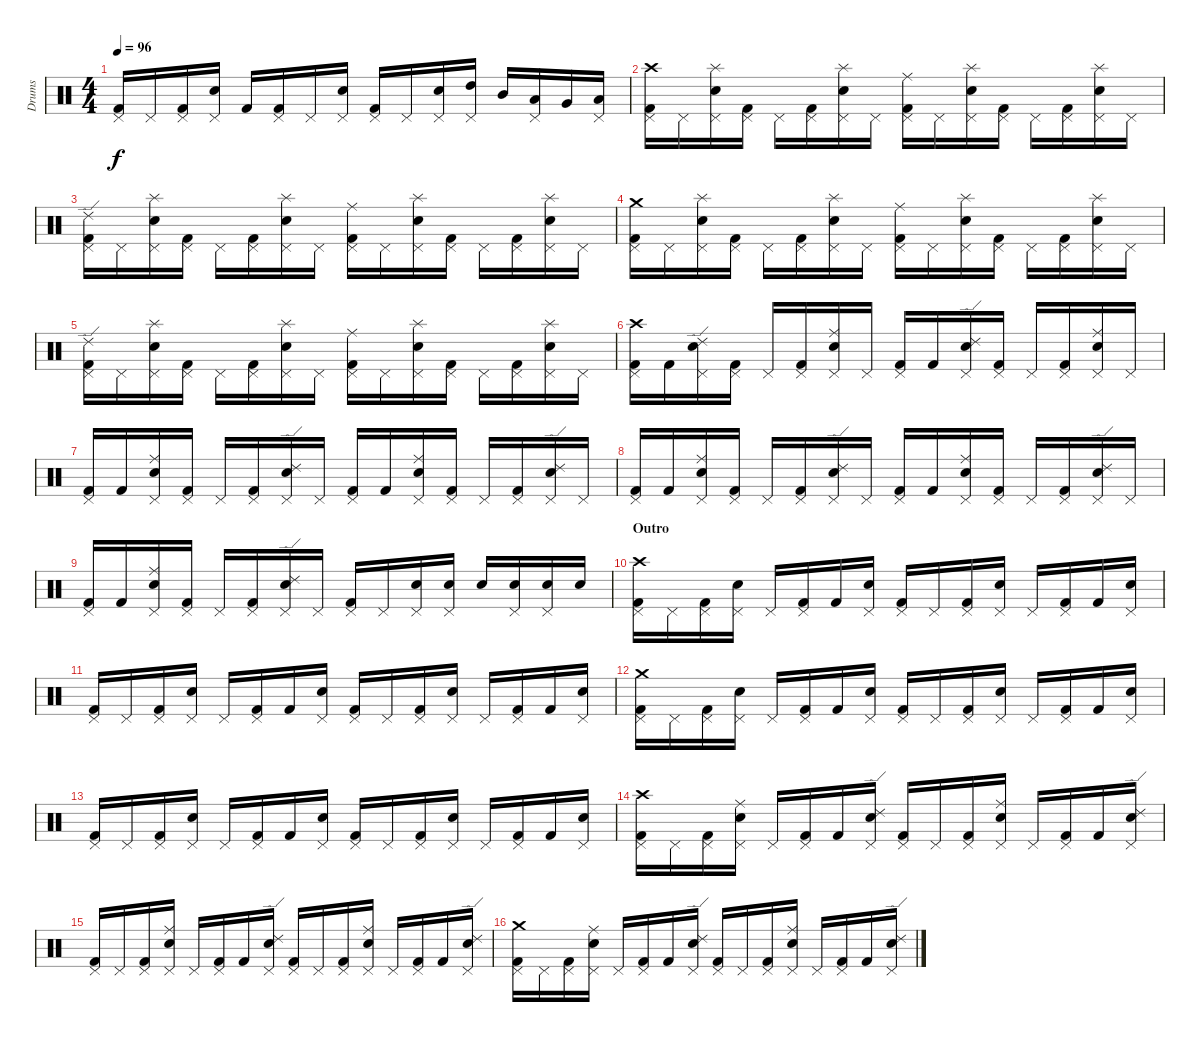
\track ("Drums" "Drums") {instrument percussion}
\staff {score}
\articulation defaults
\ts (4 4)
\tempo 96
\clef neutral
\ks c
("Kick (hit) 2" "Pedal Hi-Hat (hit)").16{dy f} "Pedal Hi-Hat (hit)".16 ("Kick (hit) 2" "Pedal Hi-Hat (hit)").16 ("Snare (hit) 2" "Pedal Hi-Hat (hit)").16 "Kick (hit) 2".16 ("Kick (hit) 2" "Pedal Hi-Hat (hit)").16 "Pedal Hi-Hat (hit)".16 ("Snare (hit) 2" "Pedal Hi-Hat (hit)").16 ("Kick (hit) 2" "Pedal Hi-Hat (hit)").16 "Pedal Hi-Hat (hit)".16 ("Snare (hit) 2" "Pedal Hi-Hat (hit)").16 ("High Tom (hit)" "Pedal Hi-Hat (hit)").16 "Mid Tom (hit)".16 ("Low Tom (hit)" "Pedal Hi-Hat (hit)").16 "Very Low Tom (hit)".16 ("Low Floor Tom (hit)" "Pedal Hi-Hat (hit)").16 |
("Kick (hit) 2" "Pedal Hi-Hat (hit)" "Crash high (hit)").16 "Pedal Hi-Hat (hit)".16 ("Snare (hit) 2" "Pedal Hi-Hat (hit)" "Splash (hit)").16 ("Kick (hit) 2" "Pedal Hi-Hat (hit)").16 "Pedal Hi-Hat (hit)".16 ("Kick (hit) 2" "Pedal Hi-Hat (hit)").16 ("Snare (hit) 2" "Pedal Hi-Hat (hit)" "Splash (hit)").16 "Pedal Hi-Hat (hit)".16 ("Kick (hit) 2" "Pedal Hi-Hat (hit)" "Ride (middle)").16 "Pedal Hi-Hat (hit)".16 ("Snare (hit) 2" "Pedal Hi-Hat (hit)" "Splash (hit)").16 ("Kick (hit) 2" "Pedal Hi-Hat (hit)").16 "Pedal Hi-Hat (hit)".16 ("Kick (hit) 2" "Pedal Hi-Hat (hit)").16 ("Snare (hit) 2" "Pedal Hi-Hat (hit)" "Splash (hit)").16 "Pedal Hi-Hat (hit)".16 |
("Kick (hit) 2" "Pedal Hi-Hat (hit)" "Ride (edge) 2").16 "Pedal Hi-Hat (hit)".16 ("Snare (hit) 2" "Pedal Hi-Hat (hit)" "Splash (hit)").16 ("Kick (hit) 2" "Pedal Hi-Hat (hit)").16 "Pedal Hi-Hat (hit)".16 ("Kick (hit) 2" "Pedal Hi-Hat (hit)").16 ("Snare (hit) 2" "Pedal Hi-Hat (hit)" "Splash (hit)").16 "Pedal Hi-Hat (hit)".16 ("Kick (hit) 2" "Pedal Hi-Hat (hit)" "Ride (middle)").16 "Pedal Hi-Hat (hit)".16 ("Snare (hit) 2" "Pedal Hi-Hat (hit)" "Splash (hit)").16 ("Kick (hit) 2" "Pedal Hi-Hat (hit)").16 "Pedal Hi-Hat (hit)".16 ("Kick (hit) 2" "Pedal Hi-Hat (hit)").16 ("Snare (hit) 2" "Pedal Hi-Hat (hit)" "Splash (hit)").16 "Pedal Hi-Hat (hit)".16 |
("Kick (hit) 2" "Pedal Hi-Hat (hit)" "Crash medium (hit)").16 "Pedal Hi-Hat (hit)".16 ("Snare (hit) 2" "Pedal Hi-Hat (hit)" "Splash (hit)").16 ("Kick (hit) 2" "Pedal Hi-Hat (hit)").16 "Pedal Hi-Hat (hit)".16 ("Kick (hit) 2" "Pedal Hi-Hat (hit)").16 ("Snare (hit) 2" "Pedal Hi-Hat (hit)" "Splash (hit)").16 "Pedal Hi-Hat (hit)".16 ("Kick (hit) 2" "Pedal Hi-Hat (hit)" "Ride (middle)").16 "Pedal Hi-Hat (hit)".16 ("Snare (hit) 2" "Pedal Hi-Hat (hit)" "Splash (hit)").16 ("Kick (hit) 2" "Pedal Hi-Hat (hit)").16 "Pedal Hi-Hat (hit)".16 ("Kick (hit) 2" "Pedal Hi-Hat (hit)").16 ("Snare (hit) 2" "Pedal Hi-Hat (hit)" "Splash (hit)").16 "Pedal Hi-Hat (hit)".16 |
("Kick (hit) 2" "Pedal Hi-Hat (hit)" "Ride (edge) 2").16 "Pedal Hi-Hat (hit)".16 ("Snare (hit) 2" "Pedal Hi-Hat (hit)" "Splash (hit)").16 ("Kick (hit) 2" "Pedal Hi-Hat (hit)").16 "Pedal Hi-Hat (hit)".16 ("Kick (hit) 2" "Pedal Hi-Hat (hit)").16 ("Snare (hit) 2" "Pedal Hi-Hat (hit)" "Splash (hit)").16 "Pedal Hi-Hat (hit)".16 ("Kick (hit) 2" "Pedal Hi-Hat (hit)" "Ride (middle)").16 "Pedal Hi-Hat (hit)".16 ("Snare (hit) 2" "Pedal Hi-Hat (hit)" "Splash (hit)").16 ("Kick (hit) 2" "Pedal Hi-Hat (hit)").16 "Pedal Hi-Hat (hit)".16 ("Kick (hit) 2" "Pedal Hi-Hat (hit)").16 ("Snare (hit) 2" "Pedal Hi-Hat (hit)" "Splash (hit)").16 "Pedal Hi-Hat (hit)".16 |
("Kick (hit) 2" "Pedal Hi-Hat (hit)" "Crash high (hit)").16 "Kick (hit) 2".16 ("Snare (hit) 2" "Pedal Hi-Hat (hit)" "Ride (edge) 2").16 ("Kick (hit) 2" "Pedal Hi-Hat (hit)").16 "Pedal Hi-Hat (hit)".16 ("Kick (hit) 2" "Pedal Hi-Hat (hit)").16 ("Snare (hit) 2" "Pedal Hi-Hat (hit)" "Ride (middle)").16 "Pedal Hi-Hat (hit)".16 ("Kick (hit) 2" "Pedal Hi-Hat (hit)").16 "Kick (hit) 2".16 ("Snare (hit) 2" "Pedal Hi-Hat (hit)" "Ride (edge) 2").16 ("Kick (hit) 2" "Pedal Hi-Hat (hit)").16 "Pedal Hi-Hat (hit)".16 ("Kick (hit) 2" "Pedal Hi-Hat (hit)").16 ("Snare (hit) 2" "Pedal Hi-Hat (hit)" "Ride (middle)").16 "Pedal Hi-Hat (hit)".16 |
("Kick (hit) 2" "Pedal Hi-Hat (hit)").16 "Kick (hit) 2".16 ("Snare (hit) 2" "Pedal Hi-Hat (hit)" "Ride (middle)").16 ("Kick (hit) 2" "Pedal Hi-Hat (hit)").16 "Pedal Hi-Hat (hit)".16 ("Kick (hit) 2" "Pedal Hi-Hat (hit)").16 ("Snare (hit) 2" "Pedal Hi-Hat (hit)" "Ride (edge) 2").16 "Pedal Hi-Hat (hit)".16 ("Kick (hit) 2" "Pedal Hi-Hat (hit)").16 "Kick (hit) 2".16 ("Snare (hit) 2" "Pedal Hi-Hat (hit)" "Ride (middle)").16 ("Kick (hit) 2" "Pedal Hi-Hat (hit)").16 "Pedal Hi-Hat (hit)".16 ("Kick (hit) 2" "Pedal Hi-Hat (hit)").16 ("Snare (hit) 2" "Pedal Hi-Hat (hit)" "Ride (edge) 2").16 "Pedal Hi-Hat (hit)".16 |
("Kick (hit) 2" "Pedal Hi-Hat (hit)").16 "Kick (hit) 2".16 ("Snare (hit) 2" "Pedal Hi-Hat (hit)" "Ride (middle)").16 ("Kick (hit) 2" "Pedal Hi-Hat (hit)").16 "Pedal Hi-Hat (hit)".16 ("Kick (hit) 2" "Pedal Hi-Hat (hit)").16 ("Snare (hit) 2" "Pedal Hi-Hat (hit)" "Ride (edge) 2").16 "Pedal Hi-Hat (hit)".16 ("Kick (hit) 2" "Pedal Hi-Hat (hit)").16 "Kick (hit) 2".16 ("Snare (hit) 2" "Pedal Hi-Hat (hit)" "Ride (middle)").16 ("Kick (hit) 2" "Pedal Hi-Hat (hit)").16 "Pedal Hi-Hat (hit)".16 ("Kick (hit) 2" "Pedal Hi-Hat (hit)").16 ("Snare (hit) 2" "Pedal Hi-Hat (hit)" "Ride (edge) 2").16 "Pedal Hi-Hat (hit)".16 |
("Kick (hit) 2" "Pedal Hi-Hat (hit)").16 "Kick (hit) 2".16 ("Snare (hit) 2" "Pedal Hi-Hat (hit)" "Ride (middle)").16 ("Kick (hit) 2" "Pedal Hi-Hat (hit)").16 "Pedal Hi-Hat (hit)".16 ("Kick (hit) 2" "Pedal Hi-Hat (hit)").16 ("Snare (hit) 2" "Pedal Hi-Hat (hit)" "Ride (edge) 2").16 "Pedal Hi-Hat (hit)".16 ("Kick (hit) 2" "Pedal Hi-Hat (hit)").16 "Pedal Hi-Hat (hit)".16 ("Snare (hit) 2" "Pedal Hi-Hat (hit)").16 ("Snare (hit) 2" "Pedal Hi-Hat (hit)").16 "Snare (hit) 2".16 ("Snare (hit) 2" "Pedal Hi-Hat (hit)").16 ("Snare (hit) 2" "Pedal Hi-Hat (hit)").16 "Snare (hit) 2".16 |
\section ("" "Outro")
("Kick (hit) 2" "Pedal Hi-Hat (hit)" "Crash high (hit)").16 "Pedal Hi-Hat (hit)".16 ("Kick (hit) 2" "Pedal Hi-Hat (hit)").16 ("Snare (hit) 2" "Pedal Hi-Hat (hit)").16 "Pedal Hi-Hat (hit)".16 ("Kick (hit) 2" "Pedal Hi-Hat (hit)").16 "Kick (hit) 2".16 ("Snare (hit) 2" "Pedal Hi-Hat (hit)").16 ("Kick (hit) 2" "Pedal Hi-Hat (hit)").16 "Pedal Hi-Hat (hit)".16 ("Kick (hit) 2" "Pedal Hi-Hat (hit)").16 ("Snare (hit) 2" "Pedal Hi-Hat (hit)").16 "Pedal Hi-Hat (hit)".16 ("Kick (hit) 2" "Pedal Hi-Hat (hit)").16 "Kick (hit) 2".16 ("Snare (hit) 2" "Pedal Hi-Hat (hit)").16 |
("Kick (hit) 2" "Pedal Hi-Hat (hit)").16 "Pedal Hi-Hat (hit)".16 ("Kick (hit) 2" "Pedal Hi-Hat (hit)").16 ("Snare (hit) 2" "Pedal Hi-Hat (hit)").16 "Pedal Hi-Hat (hit)".16 ("Kick (hit) 2" "Pedal Hi-Hat (hit)").16 "Kick (hit) 2".16 ("Snare (hit) 2" "Pedal Hi-Hat (hit)").16 ("Kick (hit) 2" "Pedal Hi-Hat (hit)").16 "Pedal Hi-Hat (hit)".16 ("Kick (hit) 2" "Pedal Hi-Hat (hit)").16 ("Snare (hit) 2" "Pedal Hi-Hat (hit)").16 "Pedal Hi-Hat (hit)".16 ("Kick (hit) 2" "Pedal Hi-Hat (hit)").16 "Kick (hit) 2".16 ("Snare (hit) 2" "Pedal Hi-Hat (hit)").16 |
("Kick (hit) 2" "Pedal Hi-Hat (hit)" "Crash medium (hit)").16 "Pedal Hi-Hat (hit)".16 ("Kick (hit) 2" "Pedal Hi-Hat (hit)").16 ("Snare (hit) 2" "Pedal Hi-Hat (hit)").16 "Pedal Hi-Hat (hit)".16 ("Kick (hit) 2" "Pedal Hi-Hat (hit)").16 "Kick (hit) 2".16 ("Snare (hit) 2" "Pedal Hi-Hat (hit)").16 ("Kick (hit) 2" "Pedal Hi-Hat (hit)").16 "Pedal Hi-Hat (hit)".16 ("Kick (hit) 2" "Pedal Hi-Hat (hit)").16 ("Snare (hit) 2" "Pedal Hi-Hat (hit)").16 "Pedal Hi-Hat (hit)".16 ("Kick (hit) 2" "Pedal Hi-Hat (hit)").16 "Kick (hit) 2".16 ("Snare (hit) 2" "Pedal Hi-Hat (hit)").16 |
("Kick (hit) 2" "Pedal Hi-Hat (hit)").16 "Pedal Hi-Hat (hit)".16 ("Kick (hit) 2" "Pedal Hi-Hat (hit)").16 ("Snare (hit) 2" "Pedal Hi-Hat (hit)").16 "Pedal Hi-Hat (hit)".16 ("Kick (hit) 2" "Pedal Hi-Hat (hit)").16 "Kick (hit) 2".16 ("Snare (hit) 2" "Pedal Hi-Hat (hit)").16 ("Kick (hit) 2" "Pedal Hi-Hat (hit)").16 "Pedal Hi-Hat (hit)".16 ("Kick (hit) 2" "Pedal Hi-Hat (hit)").16 ("Snare (hit) 2" "Pedal Hi-Hat (hit)").16 "Pedal Hi-Hat (hit)".16 ("Kick (hit) 2" "Pedal Hi-Hat (hit)").16 "Kick (hit) 2".16 ("Snare (hit) 2" "Pedal Hi-Hat (hit)").16 |
("Kick (hit) 2" "Pedal Hi-Hat (hit)" "Crash high (hit)").16 "Pedal Hi-Hat (hit)".16 ("Kick (hit) 2" "Pedal Hi-Hat (hit)").16 ("Snare (hit) 2" "Pedal Hi-Hat (hit)" "Ride (middle)").16 "Pedal Hi-Hat (hit)".16 ("Kick (hit) 2" "Pedal Hi-Hat (hit)").16 "Kick (hit) 2".16 ("Snare (hit) 2" "Pedal Hi-Hat (hit)" "Ride (edge) 2").16 ("Kick (hit) 2" "Pedal Hi-Hat (hit)").16 "Pedal Hi-Hat (hit)".16 ("Kick (hit) 2" "Pedal Hi-Hat (hit)").16 ("Snare (hit) 2" "Pedal Hi-Hat (hit)" "Ride (middle)").16 "Pedal Hi-Hat (hit)".16 ("Kick (hit) 2" "Pedal Hi-Hat (hit)").16 "Kick (hit) 2".16 ("Snare (hit) 2" "Pedal Hi-Hat (hit)" "Ride (edge) 2").16 |
("Kick (hit) 2" "Pedal Hi-Hat (hit)").16 "Pedal Hi-Hat (hit)".16 ("Kick (hit) 2" "Pedal Hi-Hat (hit)").16 ("Snare (hit) 2" "Pedal Hi-Hat (hit)" "Ride (middle)").16 "Pedal Hi-Hat (hit)".16 ("Kick (hit) 2" "Pedal Hi-Hat (hit)").16 "Kick (hit) 2".16 ("Snare (hit) 2" "Pedal Hi-Hat (hit)" "Ride (edge) 2").16 ("Kick (hit) 2" "Pedal Hi-Hat (hit)").16 "Pedal Hi-Hat (hit)".16 ("Kick (hit) 2" "Pedal Hi-Hat (hit)").16 ("Snare (hit) 2" "Pedal Hi-Hat (hit)" "Ride (middle)").16 "Pedal Hi-Hat (hit)".16 ("Kick (hit) 2" "Pedal Hi-Hat (hit)").16 "Kick (hit) 2".16 ("Snare (hit) 2" "Pedal Hi-Hat (hit)" "Ride (edge) 2").16 |
("Kick (hit) 2" "Pedal Hi-Hat (hit)" "Crash medium (hit)").16 "Pedal Hi-Hat (hit)".16 ("Kick (hit) 2" "Pedal Hi-Hat (hit)").16 ("Snare (hit) 2" "Pedal Hi-Hat (hit)" "Ride (middle)").16 "Pedal Hi-Hat (hit)".16 ("Kick (hit) 2" "Pedal Hi-Hat (hit)").16 "Kick (hit) 2".16 ("Snare (hit) 2" "Pedal Hi-Hat (hit)" "Ride (edge) 2").16 ("Kick (hit) 2" "Pedal Hi-Hat (hit)").16 "Pedal Hi-Hat (hit)".16 ("Kick (hit) 2" "Pedal Hi-Hat (hit)").16 ("Snare (hit) 2" "Pedal Hi-Hat (hit)" "Ride (middle)").16 "Pedal Hi-Hat (hit)".16 ("Kick (hit) 2" "Pedal Hi-Hat (hit)").16 "Kick (hit) 2".16 ("Snare (hit) 2" "Pedal Hi-Hat (hit)" "Ride (edge) 2").16
